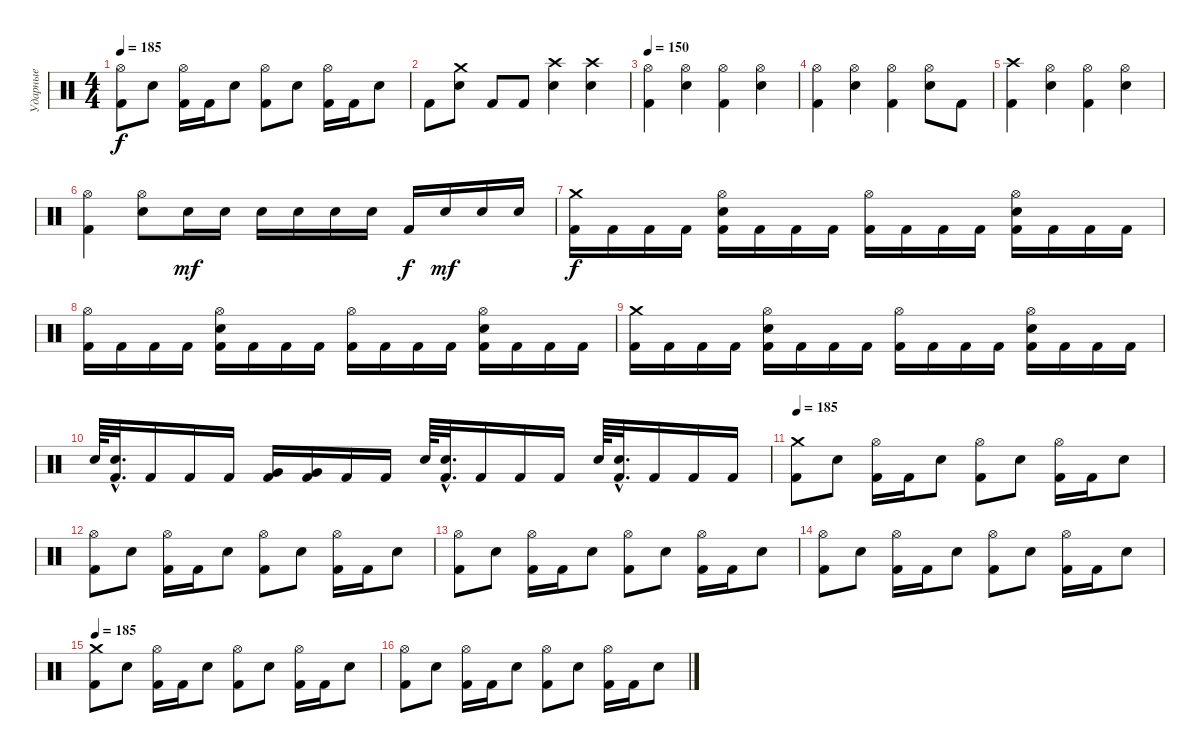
\track ("Ударные" "Ударные") {instrument percussion}
\staff {score}
\articulation defaults
\ts (4 4)
\tempo 185
\clef neutral
\ks c
("Hi-Hat (open)" "Kick (hit) 2").8{dy f} "Electric Snare (hit)".8 ("Hi-Hat (open)" "Kick (hit) 2").16 "Kick (hit) 2".16 "Electric Snare (hit)".8 ("Hi-Hat (open)" "Kick (hit) 2").8 "Electric Snare (hit)".8 ("Hi-Hat (open)" "Kick (hit) 2").16 "Kick (hit) 2".16 "Electric Snare (hit)".8 |
"Kick (hit) 2".8 ("Crash medium (hit)" "Electric Snare (hit)").8 "Kick (hit) 2".8 "Kick (hit) 2".8 ("Crash high (hit)" "Electric Snare (hit)").4 ("Crash high (hit)" "Electric Snare (hit)").4 |
\tempo 150
("Hi-Hat (open)" "Kick (hit) 2").4 ("Hi-Hat (open)" "Electric Snare (hit)").4 ("Hi-Hat (open)" "Kick (hit) 2").4 ("Hi-Hat (open)" "Electric Snare (hit)").4 |
("Hi-Hat (open)" "Kick (hit) 2").4 ("Hi-Hat (open)" "Electric Snare (hit)").4 ("Hi-Hat (open)" "Kick (hit) 2").4 ("Hi-Hat (open)" "Electric Snare (hit)").8 "Kick (hit) 2".8 |
("Crash high (hit)" "Kick (hit) 2").4 ("Hi-Hat (open)" "Electric Snare (hit)").4 ("Hi-Hat (open)" "Kick (hit) 2").4 ("Hi-Hat (open)" "Electric Snare (hit)").4 |
("Hi-Hat (open)" "Kick (hit) 2").4 ("Hi-Hat (open)" "Electric Snare (hit)").8 "Electric Snare (hit)".16{dy mf} "Electric Snare (hit)".16 "Electric Snare (hit)".16 "Electric Snare (hit)".16 "Electric Snare (hit)".16 "Electric Snare (hit)".16 "Kick (hit) 2".16{dy f} "Electric Snare (hit)".16{dy mf} "Electric Snare (hit)".16 "Electric Snare (hit)".16 |
("Crash medium (hit)" "Kick (hit) 2").16{dy f} "Kick (hit) 2".16 "Kick (hit) 2".16 "Kick (hit) 2".16 ("Hi-Hat (open)" "Electric Snare (hit)" "Kick (hit) 2").16 "Kick (hit) 2".16 "Kick (hit) 2".16 "Kick (hit) 2".16 ("Hi-Hat (open)" "Kick (hit) 2").16 "Kick (hit) 2".16 "Kick (hit) 2".16 "Kick (hit) 2".16 ("Hi-Hat (open)" "Electric Snare (hit)" "Kick (hit) 2").16 "Kick (hit) 2".16 "Kick (hit) 2".16 "Kick (hit) 2".16 |
("Hi-Hat (open)" "Kick (hit) 2").16 "Kick (hit) 2".16 "Kick (hit) 2".16 "Kick (hit) 2".16 ("Hi-Hat (open)" "Electric Snare (hit)" "Kick (hit) 2").16 "Kick (hit) 2".16 "Kick (hit) 2".16 "Kick (hit) 2".16 ("Hi-Hat (open)" "Kick (hit) 2").16 "Kick (hit) 2".16 "Kick (hit) 2".16 "Kick (hit) 2".16 ("Hi-Hat (open)" "Electric Snare (hit)" "Kick (hit) 2").16 "Kick (hit) 2".16 "Kick (hit) 2".16 "Kick (hit) 2".16 |
("Crash medium (hit)" "Kick (hit) 2").16 "Kick (hit) 2".16 "Kick (hit) 2".16 "Kick (hit) 2".16 ("Hi-Hat (open)" "Electric Snare (hit)" "Kick (hit) 2").16 "Kick (hit) 2".16 "Kick (hit) 2".16 "Kick (hit) 2".16 ("Hi-Hat (open)" "Kick (hit) 2").16 "Kick (hit) 2".16 "Kick (hit) 2".16 "Kick (hit) 2".16 ("Hi-Hat (open)" "Electric Snare (hit)" "Kick (hit) 2").16 "Kick (hit) 2".16 "Kick (hit) 2".16 "Kick (hit) 2".16 |
"Electric Snare (hit)".64 ("Electric Snare (hit)"{hac} "Kick (hit) 2"{hac}).32{d} "Kick (hit) 2".16 "Kick (hit) 2".16 "Kick (hit) 2".16 ("Very Low Tom (hit)" "Kick (hit) 2").16 ("Very Low Tom (hit)" "Kick (hit) 2").16 "Kick (hit) 2".16 "Kick (hit) 2".16 "Electric Snare (hit)".64 ("Electric Snare (hit)"{hac} "Kick (hit) 2"{hac}).32{d} "Kick (hit) 2".16 "Kick (hit) 2".16 "Kick (hit) 2".16 "Electric Snare (hit)".64 ("Electric Snare (hit)"{hac} "Kick (hit) 2"{hac}).32{d} "Kick (hit) 2".16 "Kick (hit) 2".16 "Kick (hit) 2".16 |
\tempo 185
("Crash medium (hit)" "Kick (hit) 2").8 "Electric Snare (hit)".8 ("Hi-Hat (open)" "Kick (hit) 2").16 "Kick (hit) 2".16 "Electric Snare (hit)".8 ("Hi-Hat (open)" "Kick (hit) 2").8 "Electric Snare (hit)".8 ("Hi-Hat (open)" "Kick (hit) 2").16 "Kick (hit) 2".16 "Electric Snare (hit)".8 |
("Hi-Hat (open)" "Kick (hit) 2").8 "Electric Snare (hit)".8 ("Hi-Hat (open)" "Kick (hit) 2").16 "Kick (hit) 2".16 "Electric Snare (hit)".8 ("Hi-Hat (open)" "Kick (hit) 2").8 "Electric Snare (hit)".8 ("Hi-Hat (open)" "Kick (hit) 2").16 "Kick (hit) 2".16 "Electric Snare (hit)".8 |
("Hi-Hat (open)" "Kick (hit) 2").8 "Electric Snare (hit)".8 ("Hi-Hat (open)" "Kick (hit) 2").16 "Kick (hit) 2".16 "Electric Snare (hit)".8 ("Hi-Hat (open)" "Kick (hit) 2").8 "Electric Snare (hit)".8 ("Hi-Hat (open)" "Kick (hit) 2").16 "Kick (hit) 2".16 "Electric Snare (hit)".8 |
("Hi-Hat (open)" "Kick (hit) 2").8 "Electric Snare (hit)".8 ("Hi-Hat (open)" "Kick (hit) 2").16 "Kick (hit) 2".16 "Electric Snare (hit)".8 ("Hi-Hat (open)" "Kick (hit) 2").8 "Electric Snare (hit)".8 ("Hi-Hat (open)" "Kick (hit) 2").16 "Kick (hit) 2".16 "Electric Snare (hit)".8 |
\tempo 185
("Crash medium (hit)" "Kick (hit) 2").8 "Electric Snare (hit)".8 ("Hi-Hat (open)" "Kick (hit) 2").16 "Kick (hit) 2".16 "Electric Snare (hit)".8 ("Hi-Hat (open)" "Kick (hit) 2").8 "Electric Snare (hit)".8 ("Hi-Hat (open)" "Kick (hit) 2").16 "Kick (hit) 2".16 "Electric Snare (hit)".8 |
("Hi-Hat (open)" "Kick (hit) 2").8 "Electric Snare (hit)".8 ("Hi-Hat (open)" "Kick (hit) 2").16 "Kick (hit) 2".16 "Electric Snare (hit)".8 ("Hi-Hat (open)" "Kick (hit) 2").8 "Electric Snare (hit)".8 ("Hi-Hat (open)" "Kick (hit) 2").16 "Kick (hit) 2".16 "Electric Snare (hit)".8
